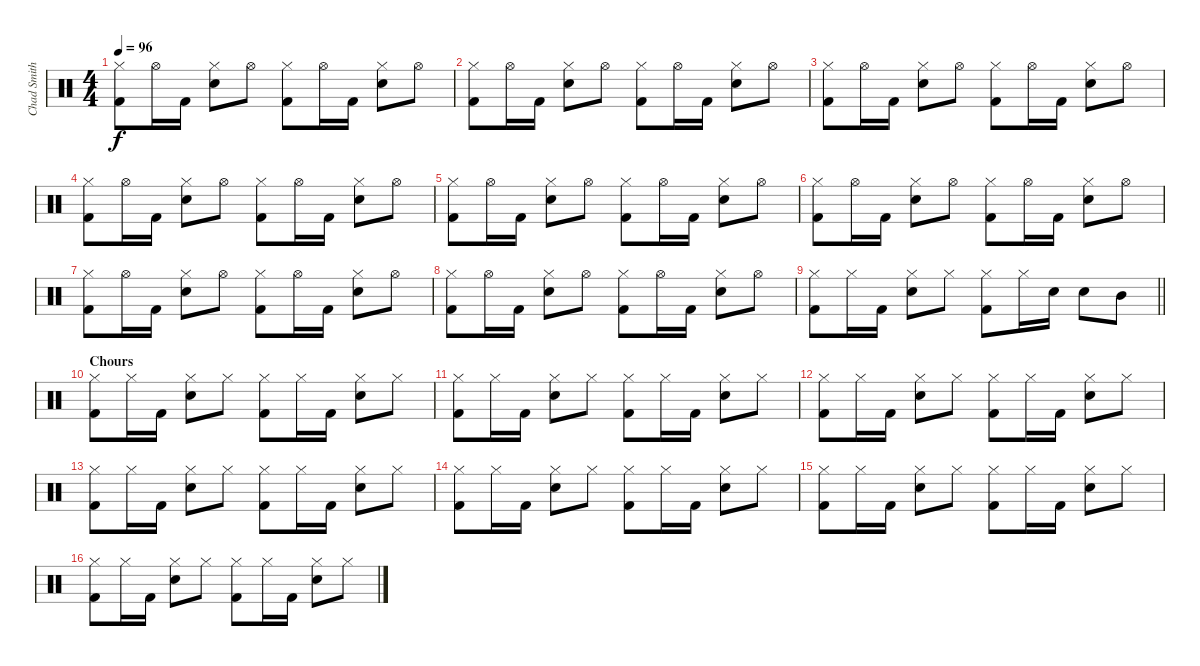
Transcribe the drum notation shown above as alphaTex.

\track ("Chad Smith (Drums)" "Chad Smith") {instrument percussion}
\staff {score}
\articulation defaults
\ts (4 4)
\tempo 96
\clef neutral
\ks c
("Hi-Hat (closed)" "Kick (hit) 2").8{dy f} "Hi-Hat (open)".16 "Kick (hit) 2".16 ("Hi-Hat (closed)" "Electric Snare (hit)").8 "Hi-Hat (open)".8 ("Hi-Hat (closed)" "Kick (hit) 2").8 "Hi-Hat (open)".16 "Kick (hit) 2".16 ("Hi-Hat (closed)" "Electric Snare (hit)").8 "Hi-Hat (open)".8 |
("Hi-Hat (closed)" "Kick (hit) 2").8 "Hi-Hat (open)".16 "Kick (hit) 2".16 ("Hi-Hat (closed)" "Electric Snare (hit)").8 "Hi-Hat (open)".8 ("Hi-Hat (closed)" "Kick (hit) 2").8 "Hi-Hat (open)".16 "Kick (hit) 2".16 ("Hi-Hat (closed)" "Electric Snare (hit)").8 "Hi-Hat (open)".8 |
("Hi-Hat (closed)" "Kick (hit) 2").8 "Hi-Hat (open)".16 "Kick (hit) 2".16 ("Hi-Hat (closed)" "Electric Snare (hit)").8 "Hi-Hat (open)".8 ("Hi-Hat (closed)" "Kick (hit) 2").8 "Hi-Hat (open)".16 "Kick (hit) 2".16 ("Hi-Hat (closed)" "Electric Snare (hit)").8 "Hi-Hat (open)".8 |
("Hi-Hat (closed)" "Kick (hit) 2").8 "Hi-Hat (open)".16 "Kick (hit) 2".16 ("Hi-Hat (closed)" "Electric Snare (hit)").8 "Hi-Hat (open)".8 ("Hi-Hat (closed)" "Kick (hit) 2").8 "Hi-Hat (open)".16 "Kick (hit) 2".16 ("Hi-Hat (closed)" "Electric Snare (hit)").8 "Hi-Hat (open)".8 |
("Hi-Hat (closed)" "Kick (hit) 2").8 "Hi-Hat (open)".16 "Kick (hit) 2".16 ("Hi-Hat (closed)" "Electric Snare (hit)").8 "Hi-Hat (open)".8 ("Hi-Hat (closed)" "Kick (hit) 2").8 "Hi-Hat (open)".16 "Kick (hit) 2".16 ("Hi-Hat (closed)" "Electric Snare (hit)").8 "Hi-Hat (open)".8 |
("Hi-Hat (closed)" "Kick (hit) 2").8 "Hi-Hat (open)".16 "Kick (hit) 2".16 ("Hi-Hat (closed)" "Electric Snare (hit)").8 "Hi-Hat (open)".8 ("Hi-Hat (closed)" "Kick (hit) 2").8 "Hi-Hat (open)".16 "Kick (hit) 2".16 ("Hi-Hat (closed)" "Electric Snare (hit)").8 "Hi-Hat (open)".8 |
("Hi-Hat (closed)" "Kick (hit) 2").8 "Hi-Hat (open)".16 "Kick (hit) 2".16 ("Hi-Hat (closed)" "Electric Snare (hit)").8 "Hi-Hat (open)".8 ("Hi-Hat (closed)" "Kick (hit) 2").8 "Hi-Hat (open)".16 "Kick (hit) 2".16 ("Hi-Hat (closed)" "Electric Snare (hit)").8 "Hi-Hat (open)".8 |
("Hi-Hat (closed)" "Kick (hit) 2").8 "Hi-Hat (open)".16 "Kick (hit) 2".16 ("Hi-Hat (closed)" "Electric Snare (hit)").8 "Hi-Hat (open)".8 ("Hi-Hat (closed)" "Kick (hit) 2").8 "Hi-Hat (open)".16 "Kick (hit) 2".16 ("Hi-Hat (closed)" "Electric Snare (hit)").8 "Hi-Hat (open)".8 |
\barLineRight lightlight
("Hi-Hat (closed)" "Kick (hit) 2").8 "Hi-Hat (closed)".16 "Kick (hit) 2".16 ("Hi-Hat (closed)" "Electric Snare (hit)").8 "Hi-Hat (closed)".8 ("Hi-Hat (closed)" "Kick (hit) 2").8 "Hi-Hat (closed)".16 "Electric Snare (hit)".16 "Electric Snare (hit)".8 "Mid Tom (hit)".8 |
\section ("" "Chours")
("Hi-Hat (closed)" "Kick (hit) 2").8 "Hi-Hat (closed)".16 "Kick (hit) 2".16 ("Hi-Hat (closed)" "Electric Snare (hit)").8 "Hi-Hat (closed)".8 ("Hi-Hat (closed)" "Kick (hit) 2").8 "Hi-Hat (closed)".16 "Kick (hit) 2".16 ("Hi-Hat (closed)" "Electric Snare (hit)").8 "Hi-Hat (closed)".8 |
("Hi-Hat (closed)" "Kick (hit) 2").8 "Hi-Hat (closed)".16 "Kick (hit) 2".16 ("Hi-Hat (closed)" "Electric Snare (hit)").8 "Hi-Hat (closed)".8 ("Hi-Hat (closed)" "Kick (hit) 2").8 "Hi-Hat (closed)".16 "Kick (hit) 2".16 ("Hi-Hat (closed)" "Electric Snare (hit)").8 "Hi-Hat (closed)".8 |
("Hi-Hat (closed)" "Kick (hit) 2").8 "Hi-Hat (closed)".16 "Kick (hit) 2".16 ("Hi-Hat (closed)" "Electric Snare (hit)").8 "Hi-Hat (closed)".8 ("Hi-Hat (closed)" "Kick (hit) 2").8 "Hi-Hat (closed)".16 "Kick (hit) 2".16 ("Hi-Hat (closed)" "Electric Snare (hit)").8 "Hi-Hat (closed)".8 |
("Hi-Hat (closed)" "Kick (hit) 2").8 "Hi-Hat (closed)".16 "Kick (hit) 2".16 ("Hi-Hat (closed)" "Electric Snare (hit)").8 "Hi-Hat (closed)".8 ("Hi-Hat (closed)" "Kick (hit) 2").8 "Hi-Hat (closed)".16 "Kick (hit) 2".16 ("Hi-Hat (closed)" "Electric Snare (hit)").8 "Hi-Hat (closed)".8 |
("Hi-Hat (closed)" "Kick (hit) 2").8 "Hi-Hat (closed)".16 "Kick (hit) 2".16 ("Hi-Hat (closed)" "Electric Snare (hit)").8 "Hi-Hat (closed)".8 ("Hi-Hat (closed)" "Kick (hit) 2").8 "Hi-Hat (closed)".16 "Kick (hit) 2".16 ("Hi-Hat (closed)" "Electric Snare (hit)").8 "Hi-Hat (closed)".8 |
("Hi-Hat (closed)" "Kick (hit) 2").8 "Hi-Hat (closed)".16 "Kick (hit) 2".16 ("Hi-Hat (closed)" "Electric Snare (hit)").8 "Hi-Hat (closed)".8 ("Hi-Hat (closed)" "Kick (hit) 2").8 "Hi-Hat (closed)".16 "Kick (hit) 2".16 ("Hi-Hat (closed)" "Electric Snare (hit)").8 "Hi-Hat (closed)".8 |
("Hi-Hat (closed)" "Kick (hit) 2").8 "Hi-Hat (closed)".16 "Kick (hit) 2".16 ("Hi-Hat (closed)" "Electric Snare (hit)").8 "Hi-Hat (closed)".8 ("Hi-Hat (closed)" "Kick (hit) 2").8 "Hi-Hat (closed)".16 "Kick (hit) 2".16 ("Hi-Hat (closed)" "Electric Snare (hit)").8 "Hi-Hat (closed)".8
